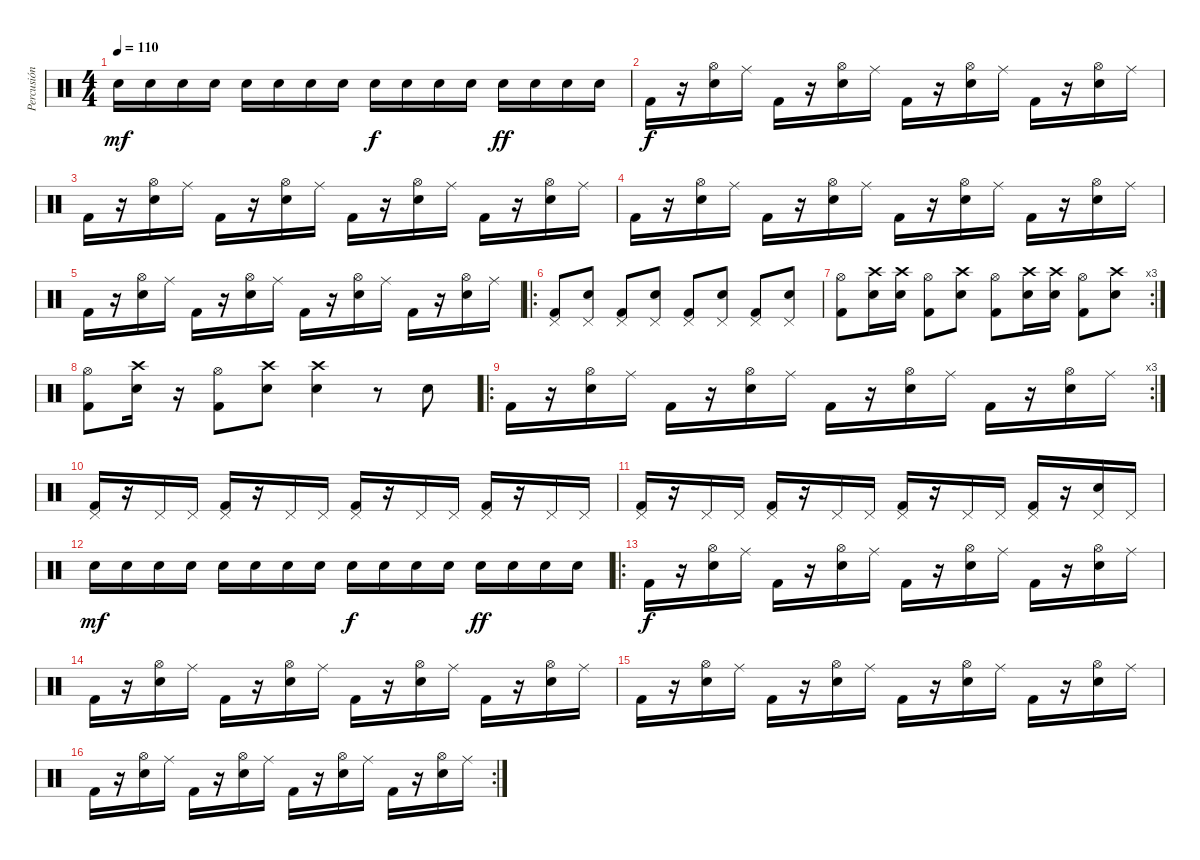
\track ("Percusión" "Percusión") {instrument percussion}
\staff {score}
\articulation defaults
\ts (4 4)
\tempo 110
\clef neutral
\ks c "Electric Snare (hit)".16{dy mf} "Electric Snare (hit)".16 "Electric Snare (hit)".16 "Electric Snare (hit)".16 "Electric Snare (hit)".16 "Electric Snare (hit)".16 "Electric Snare (hit)".16 "Electric Snare (hit)".16 "Electric Snare (hit)".16{dy f} "Electric Snare (hit)".16 "Electric Snare (hit)".16 "Electric Snare (hit)".16 "Electric Snare (hit)".16{dy ff} "Electric Snare (hit)".16 "Electric Snare (hit)".16 "Electric Snare (hit)".16
|
"Kick (hit) 2".16{dy f} r.16 ("Hi-Hat (open)" "Electric Snare (hit)").16 "Ride (middle)".16 "Kick (hit) 2".16 r.16 ("Hi-Hat (open)" "Electric Snare (hit)").16 "Ride (middle)".16 "Kick (hit) 2".16 r.16 ("Hi-Hat (open)" "Electric Snare (hit)").16 "Ride (middle)".16 "Kick (hit) 2".16 r.16 ("Hi-Hat (open)" "Electric Snare (hit)").16 "Ride (middle)".16 |
"Kick (hit) 2".16 r.16 ("Hi-Hat (open)" "Electric Snare (hit)").16 "Ride (middle)".16 "Kick (hit) 2".16 r.16 ("Hi-Hat (open)" "Electric Snare (hit)").16 "Ride (middle)".16 "Kick (hit) 2".16 r.16 ("Hi-Hat (open)" "Electric Snare (hit)").16 "Ride (middle)".16 "Kick (hit) 2".16 r.16 ("Hi-Hat (open)" "Electric Snare (hit)").16 "Ride (middle)".16 |
"Kick (hit) 2".16 r.16 ("Hi-Hat (open)" "Electric Snare (hit)").16 "Ride (middle)".16 "Kick (hit) 2".16 r.16 ("Hi-Hat (open)" "Electric Snare (hit)").16 "Ride (middle)".16 "Kick (hit) 2".16 r.16 ("Hi-Hat (open)" "Electric Snare (hit)").16 "Ride (middle)".16 "Kick (hit) 2".16 r.16 ("Hi-Hat (open)" "Electric Snare (hit)").16 "Ride (middle)".16 |
"Kick (hit) 2".16 r.16 ("Hi-Hat (open)" "Electric Snare (hit)").16 "Ride (middle)".16 "Kick (hit) 2".16 r.16 ("Hi-Hat (open)" "Electric Snare (hit)").16 "Ride (middle)".16 "Kick (hit) 2".16 r.16 ("Hi-Hat (open)" "Electric Snare (hit)").16 "Ride (middle)".16 "Kick (hit) 2".16 r.16 ("Hi-Hat (open)" "Electric Snare (hit)").16 "Ride (middle)".16 |
\ro
("Pedal Hi-Hat (hit)" "Kick (hit) 2").8 ("Pedal Hi-Hat (hit)" "Electric Snare (hit)").8 ("Pedal Hi-Hat (hit)" "Kick (hit) 2").8 ("Pedal Hi-Hat (hit)" "Electric Snare (hit)").8 ("Pedal Hi-Hat (hit)" "Kick (hit) 2").8 ("Pedal Hi-Hat (hit)" "Electric Snare (hit)").8 ("Pedal Hi-Hat (hit)" "Kick (hit) 2").8 ("Pedal Hi-Hat (hit)" "Electric Snare (hit)").8 |
\rc 3
("Hi-Hat (open)" "Kick (hit) 2").8 ("Crash high (hit)" "Electric Snare (hit)").16 ("Crash high (hit)" "Electric Snare (hit)").16 ("Hi-Hat (open)" "Kick (hit) 2").8 ("Crash high (hit)" "Electric Snare (hit)").8 ("Hi-Hat (open)" "Kick (hit) 2").8 ("Crash high (hit)" "Electric Snare (hit)").16 ("Crash high (hit)" "Electric Snare (hit)").16 ("Hi-Hat (open)" "Kick (hit) 2").8 ("Crash high (hit)" "Electric Snare (hit)").8 |
("Hi-Hat (open)" "Kick (hit) 2").8 ("Crash high (hit)" "Electric Snare (hit)").16 r.16 ("Hi-Hat (open)" "Kick (hit) 2").8 ("Crash high (hit)" "Electric Snare (hit)").8 ("Crash high (hit)" "Electric Snare (hit)").4 r.8 "Electric Snare (hit)".8 |
\ro
\rc 3 "Kick (hit) 2".16
r.16 ("Hi-Hat (open)" "Electric Snare (hit)").16 "Ride (middle)".16 "Kick (hit) 2".16 r.16 ("Hi-Hat (open)" "Electric Snare (hit)").16 "Ride (middle)".16 "Kick (hit) 2".16 r.16 ("Hi-Hat (open)" "Electric Snare (hit)").16 "Ride (middle)".16 "Kick (hit) 2".16 r.16 ("Hi-Hat (open)" "Electric Snare (hit)").16 "Ride (middle)".16 |
("Pedal Hi-Hat (hit)" "Kick (hit) 2").16 r.16 "Pedal Hi-Hat (hit)".16 "Pedal Hi-Hat (hit)".16 ("Pedal Hi-Hat (hit)" "Kick (hit) 2").16 r.16 "Pedal Hi-Hat (hit)".16 "Pedal Hi-Hat (hit)".16 ("Pedal Hi-Hat (hit)" "Kick (hit) 2").16 r.16 "Pedal Hi-Hat (hit)".16 "Pedal Hi-Hat (hit)".16 ("Pedal Hi-Hat (hit)" "Kick (hit) 2").16 r.16 "Pedal Hi-Hat (hit)".16 "Pedal Hi-Hat (hit)".16 |
("Pedal Hi-Hat (hit)" "Kick (hit) 2").16 r.16 "Pedal Hi-Hat (hit)".16 "Pedal Hi-Hat (hit)".16 ("Pedal Hi-Hat (hit)" "Kick (hit) 2").16 r.16 "Pedal Hi-Hat (hit)".16 "Pedal Hi-Hat (hit)".16 ("Pedal Hi-Hat (hit)" "Kick (hit) 2").16 r.16 "Pedal Hi-Hat (hit)".16 "Pedal Hi-Hat (hit)".16 ("Pedal Hi-Hat (hit)" "Kick (hit) 2").16 r.16 ("Pedal Hi-Hat (hit)" "Electric Snare (hit)").16 "Pedal Hi-Hat (hit)".16 |
"Electric Snare (hit)".16{dy mf} "Electric Snare (hit)".16 "Electric Snare (hit)".16 "Electric Snare (hit)".16 "Electric Snare (hit)".16 "Electric Snare (hit)".16 "Electric Snare (hit)".16 "Electric Snare (hit)".16 "Electric Snare (hit)".16{dy f} "Electric Snare (hit)".16 "Electric Snare (hit)".16 "Electric Snare (hit)".16 "Electric Snare (hit)".16{dy ff} "Electric Snare (hit)".16 "Electric Snare (hit)".16 "Electric Snare (hit)".16 |
\ro "Kick (hit) 2".16{dy f}
r.16 ("Hi-Hat (open)" "Electric Snare (hit)").16 "Ride (middle)".16 "Kick (hit) 2".16 r.16 ("Hi-Hat (open)" "Electric Snare (hit)").16 "Ride (middle)".16 "Kick (hit) 2".16 r.16 ("Hi-Hat (open)" "Electric Snare (hit)").16 "Ride (middle)".16 "Kick (hit) 2".16 r.16 ("Hi-Hat (open)" "Electric Snare (hit)").16 "Ride (middle)".16 |
"Kick (hit) 2".16 r.16 ("Hi-Hat (open)" "Electric Snare (hit)").16 "Ride (middle)".16 "Kick (hit) 2".16 r.16 ("Hi-Hat (open)" "Electric Snare (hit)").16 "Ride (middle)".16 "Kick (hit) 2".16 r.16 ("Hi-Hat (open)" "Electric Snare (hit)").16 "Ride (middle)".16 "Kick (hit) 2".16 r.16 ("Hi-Hat (open)" "Electric Snare (hit)").16 "Ride (middle)".16 |
"Kick (hit) 2".16 r.16 ("Hi-Hat (open)" "Electric Snare (hit)").16 "Ride (middle)".16 "Kick (hit) 2".16 r.16 ("Hi-Hat (open)" "Electric Snare (hit)").16 "Ride (middle)".16 "Kick (hit) 2".16 r.16 ("Hi-Hat (open)" "Electric Snare (hit)").16 "Ride (middle)".16 "Kick (hit) 2".16 r.16 ("Hi-Hat (open)" "Electric Snare (hit)").16 "Ride (middle)".16 |
\rc 2 "Kick (hit) 2".16
r.16 ("Hi-Hat (open)" "Electric Snare (hit)").16 "Ride (middle)".16 "Kick (hit) 2".16 r.16 ("Hi-Hat (open)" "Electric Snare (hit)").16 "Ride (middle)".16 "Kick (hit) 2".16 r.16 ("Hi-Hat (open)" "Electric Snare (hit)").16 "Ride (middle)".16 "Kick (hit) 2".16 r.16 ("Hi-Hat (open)" "Electric Snare (hit)").16 "Ride (middle)".16
